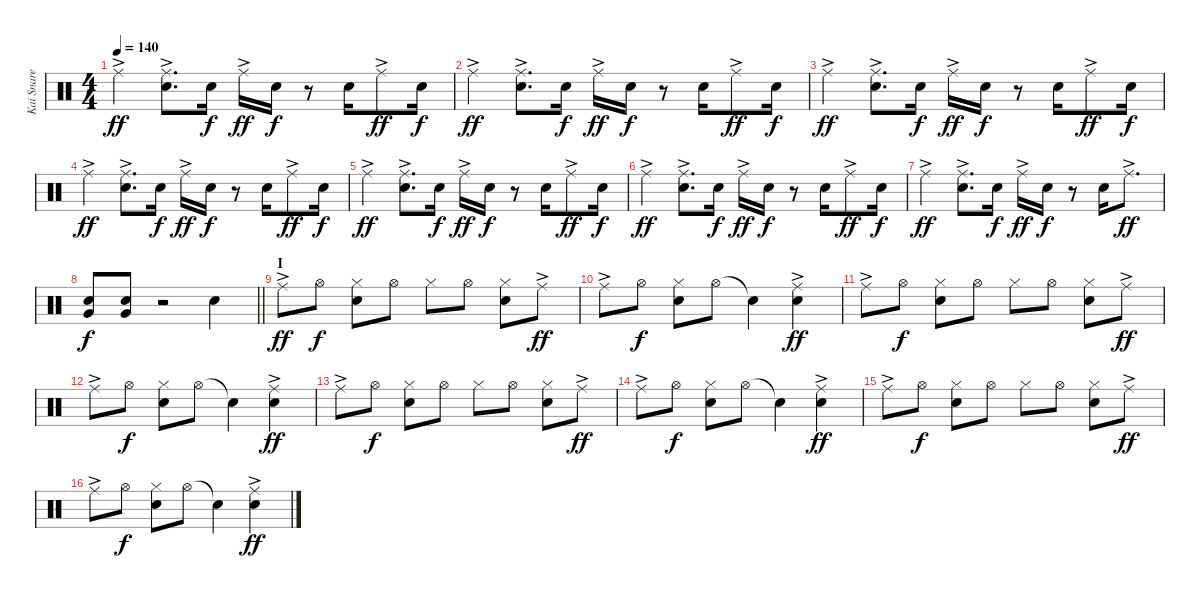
\track ("Kai Snare" "Kai Snare") {instrument percussion}
\staff {score}
\articulation defaults
\ts (4 4)
\tempo 140
\clef neutral
\ks c "Ride (middle)"{ac}.4{dy ff}
("Ride (middle)"{ac} "Snare (hit) 2").8{d} "Snare (hit) 2".16{dy f} "Ride (middle)"{ac}.16{dy ff} "Snare (hit) 2".16{dy f} r.8 "Snare (hit) 2".16 "Ride (middle)"{ac}.8{dy ff} "Snare (hit) 2".16{dy f} |
"Ride (middle)"{ac}.4{dy ff} ("Ride (middle)"{ac} "Snare (hit) 2").8{d} "Snare (hit) 2".16{dy f} "Ride (middle)"{ac}.16{dy ff} "Snare (hit) 2".16{dy f} r.8 "Snare (hit) 2".16 "Ride (middle)"{ac}.8{dy ff} "Snare (hit) 2".16{dy f} |
"Ride (middle)"{ac}.4{dy ff} ("Ride (middle)"{ac} "Snare (hit) 2").8{d} "Snare (hit) 2".16{dy f} "Ride (middle)"{ac}.16{dy ff} "Snare (hit) 2".16{dy f} r.8 "Snare (hit) 2".16 "Ride (middle)"{ac}.8{dy ff} "Snare (hit) 2".16{dy f} |
"Ride (middle)"{ac}.4{dy ff} ("Ride (middle)"{ac} "Snare (hit) 2").8{d} "Snare (hit) 2".16{dy f} "Ride (middle)"{ac}.16{dy ff} "Snare (hit) 2".16{dy f} r.8 "Snare (hit) 2".16 "Ride (middle)"{ac}.8{dy ff} "Snare (hit) 2".16{dy f} |
"Ride (middle)"{ac}.4{dy ff} ("Ride (middle)"{ac} "Snare (hit) 2").8{d} "Snare (hit) 2".16{dy f} "Ride (middle)"{ac}.16{dy ff} "Snare (hit) 2".16{dy f} r.8 "Snare (hit) 2".16 "Ride (middle)"{ac}.8{dy ff} "Snare (hit) 2".16{dy f} |
"Ride (middle)"{ac}.4{dy ff} ("Ride (middle)"{ac} "Snare (hit) 2").8{d} "Snare (hit) 2".16{dy f} "Ride (middle)"{ac}.16{dy ff} "Snare (hit) 2".16{dy f} r.8 "Snare (hit) 2".16 "Ride (middle)"{ac}.8{dy ff} "Snare (hit) 2".16{dy f} |
"Ride (middle)"{ac}.4{dy ff} ("Ride (middle)"{ac} "Snare (hit) 2").8{d} "Snare (hit) 2".16{dy f} "Ride (middle)"{ac}.16{dy ff} "Snare (hit) 2".16{dy f} r.8 "Snare (hit) 2".16 "Ride (middle)"{ac}.8{d dy ff} |
\barLineRight lightlight
("Very Low Tom (hit)" "Snare (hit) 2").8{dy f} ("Very Low Tom (hit)" "Snare (hit) 2").8 r.2 "Snare (hit) 2".4 |
\section ("" "I")
"Ride (middle)"{ac}.8{dy ff} "Hi-Hat (open)".8{dy f} ("Hi-Hat (closed)" "Snare (hit) 2").8 "Hi-Hat (open)".8 "Hi-Hat (closed)".8 "Hi-Hat (open)".8 ("Hi-Hat (closed)" "Snare (hit) 2").8 "Ride (middle)"{ac}.8{dy ff} |
"Ride (middle)"{ac}.8 "Hi-Hat (open)".8{dy f} ("Hi-Hat (closed)" "Snare (hit) 2").8 "Hi-Hat (open)".8 "Snare (hit)"{t}.4 ("Ride (middle)"{ac} "Snare (hit) 2").4{dy ff} |
"Ride (middle)"{ac}.8 "Hi-Hat (open)".8{dy f} ("Hi-Hat (closed)" "Snare (hit) 2").8 "Hi-Hat (open)".8 "Hi-Hat (closed)".8 "Hi-Hat (open)".8 ("Hi-Hat (closed)" "Snare (hit) 2").8 "Ride (middle)"{ac}.8{dy ff} |
"Ride (middle)"{ac}.8 "Hi-Hat (open)".8{dy f} ("Hi-Hat (closed)" "Snare (hit) 2").8 "Hi-Hat (open)".8 "Snare (hit)"{t}.4 ("Ride (middle)"{ac} "Snare (hit) 2").4{dy ff} |
"Ride (middle)"{ac}.8 "Hi-Hat (open)".8{dy f} ("Hi-Hat (closed)" "Snare (hit) 2").8 "Hi-Hat (open)".8 "Hi-Hat (closed)".8 "Hi-Hat (open)".8 ("Hi-Hat (closed)" "Snare (hit) 2").8 "Ride (middle)"{ac}.8{dy ff} |
"Ride (middle)"{ac}.8 "Hi-Hat (open)".8{dy f} ("Hi-Hat (closed)" "Snare (hit) 2").8 "Hi-Hat (open)".8 "Snare (hit)"{t}.4 ("Ride (middle)"{ac} "Snare (hit) 2").4{dy ff} |
"Ride (middle)"{ac}.8 "Hi-Hat (open)".8{dy f} ("Hi-Hat (closed)" "Snare (hit) 2").8 "Hi-Hat (open)".8 "Hi-Hat (closed)".8 "Hi-Hat (open)".8 ("Hi-Hat (closed)" "Snare (hit) 2").8 "Ride (middle)"{ac}.8{dy ff} |
"Ride (middle)"{ac}.8 "Hi-Hat (open)".8{dy f} ("Hi-Hat (closed)" "Snare (hit) 2").8 "Hi-Hat (open)".8 "Snare (hit)"{t}.4 ("Ride (middle)"{ac} "Snare (hit) 2").4{dy ff}
